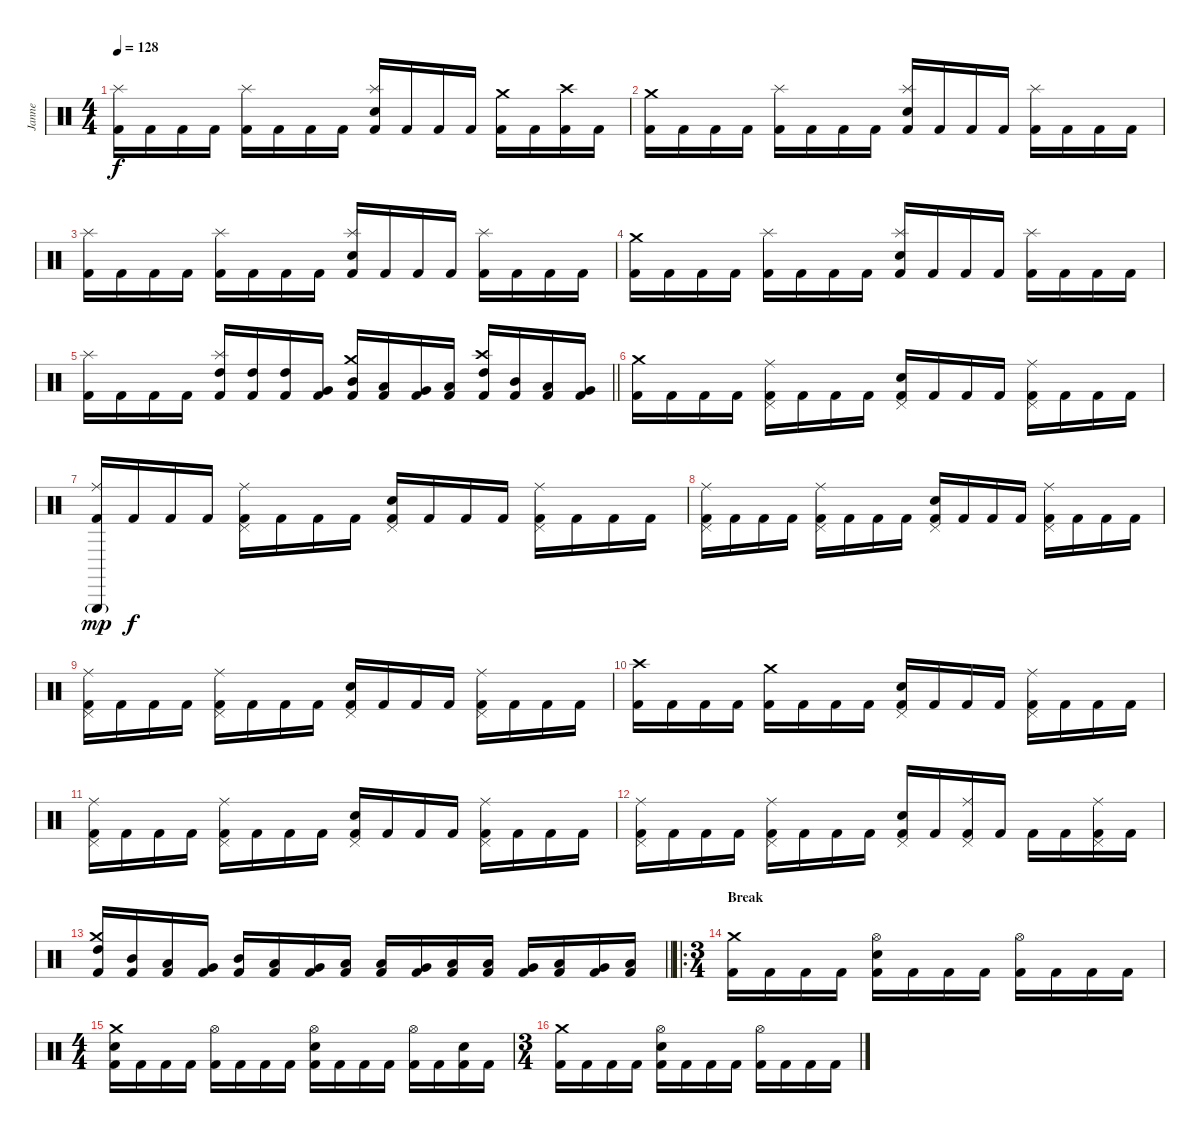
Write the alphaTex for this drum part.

\track ("Janne" "Janne") {instrument percussion}
\staff {score}
\articulation defaults
\ts (4 4)
\tempo 128
\clef neutral
\ks c
("Kick (hit) 2" "Splash (hit)").16{dy f} "Kick (hit) 2".16 "Kick (hit) 2".16 "Kick (hit) 2".16 ("Kick (hit) 2" "Splash (hit)").16 "Kick (hit) 2".16 "Kick (hit) 2".16 "Kick (hit) 2".16 ("Kick (hit) 2" "Snare (hit) 2" "Splash (hit)").16 "Kick (hit) 2".16 "Kick (hit) 2".16 "Kick (hit) 2".16 ("Kick (hit) 2" "Crash medium (hit)").16 "Kick (hit) 2".16 ("Kick (hit) 2" "Crash high (hit)").16 "Kick (hit) 2".16 |
("Kick (hit) 2" "Crash medium (hit)").16 "Kick (hit) 2".16 "Kick (hit) 2".16 "Kick (hit) 2".16 ("Kick (hit) 2" "Splash (hit)").16 "Kick (hit) 2".16 "Kick (hit) 2".16 "Kick (hit) 2".16 ("Kick (hit) 2" "Snare (hit) 2" "Splash (hit)").16 "Kick (hit) 2".16 "Kick (hit) 2".16 "Kick (hit) 2".16 ("Kick (hit) 2" "Splash (hit)").16 "Kick (hit) 2".16 "Kick (hit) 2".16 "Kick (hit) 2".16 |
("Kick (hit) 2" "Splash (hit)").16 "Kick (hit) 2".16 "Kick (hit) 2".16 "Kick (hit) 2".16 ("Kick (hit) 2" "Splash (hit)").16 "Kick (hit) 2".16 "Kick (hit) 2".16 "Kick (hit) 2".16 ("Kick (hit) 2" "Snare (hit) 2" "Splash (hit)").16 "Kick (hit) 2".16 "Kick (hit) 2".16 "Kick (hit) 2".16 ("Kick (hit) 2" "Splash (hit)").16 "Kick (hit) 2".16 "Kick (hit) 2".16 "Kick (hit) 2".16 |
("Kick (hit) 2" "Crash medium (hit)").16 "Kick (hit) 2".16 "Kick (hit) 2".16 "Kick (hit) 2".16 ("Kick (hit) 2" "Splash (hit)").16 "Kick (hit) 2".16 "Kick (hit) 2".16 "Kick (hit) 2".16 ("Kick (hit) 2" "Snare (hit) 2" "Splash (hit)").16 "Kick (hit) 2".16 "Kick (hit) 2".16 "Kick (hit) 2".16 ("Kick (hit) 2" "Splash (hit)").16 "Kick (hit) 2".16 "Kick (hit) 2".16 "Kick (hit) 2".16 |
\barLineRight lightlight
("Kick (hit) 2" "Splash (hit)").16 "Kick (hit) 2".16 "Kick (hit) 2".16 "Kick (hit) 2".16 ("Kick (hit) 2" "High Tom (hit)" "Splash (hit)").16 ("Kick (hit) 2" "High Tom (hit)").16 ("Kick (hit) 2" "High Tom (hit)").16 ("Kick (hit) 2" "Very Low Tom (hit)").16 ("Kick (hit) 2" "Mid Tom (hit)" "Crash medium (hit)").16 ("Kick (hit) 2" "Low Tom (hit)").16 ("Kick (hit) 2" "Very Low Tom (hit)").16 ("Kick (hit) 2" "Low Tom (hit)").16 ("Kick (hit) 2" "High Tom (hit)" "Crash high (hit)").16 ("Kick (hit) 2" "Mid Tom (hit)").16 ("Kick (hit) 2" "Low Tom (hit)").16 ("Kick (hit) 2" "Very Low Tom (hit)").16 |
\section ("" "")
("Kick (hit) 2" "Crash medium (hit)").16 "Kick (hit) 2".16 "Kick (hit) 2".16 "Kick (hit) 2".16 ("Kick (hit) 2" "Pedal Hi-Hat (hit)" "Ride (middle)").16 "Kick (hit) 2".16 "Kick (hit) 2".16 "Kick (hit) 2".16 ("Kick (hit) 2" "Snare (hit) 2" "Pedal Hi-Hat (hit)").16 "Kick (hit) 2".16 "Kick (hit) 2".16 "Kick (hit) 2".16 ("Kick (hit) 2" "Pedal Hi-Hat (hit)" "Ride (middle)").16 "Kick (hit) 2".16 "Kick (hit) 2".16 "Kick (hit) 2".16 |
("Kick (hit) 2" "Ride (middle)" "Triangle (hit)"{g}).16{dy mp} "Kick (hit) 2".16{dy f} "Kick (hit) 2".16 "Kick (hit) 2".16 ("Kick (hit) 2" "Pedal Hi-Hat (hit)" "Ride (middle)").16 "Kick (hit) 2".16 "Kick (hit) 2".16 "Kick (hit) 2".16 ("Kick (hit) 2" "Snare (hit) 2" "Pedal Hi-Hat (hit)").16 "Kick (hit) 2".16 "Kick (hit) 2".16 "Kick (hit) 2".16 ("Kick (hit) 2" "Pedal Hi-Hat (hit)" "Ride (middle)").16 "Kick (hit) 2".16 "Kick (hit) 2".16 "Kick (hit) 2".16 |
("Kick (hit) 2" "Pedal Hi-Hat (hit)" "Ride (middle)").16 "Kick (hit) 2".16 "Kick (hit) 2".16 "Kick (hit) 2".16 ("Kick (hit) 2" "Pedal Hi-Hat (hit)" "Ride (middle)").16 "Kick (hit) 2".16 "Kick (hit) 2".16 "Kick (hit) 2".16 ("Kick (hit) 2" "Snare (hit) 2" "Pedal Hi-Hat (hit)").16 "Kick (hit) 2".16 "Kick (hit) 2".16 "Kick (hit) 2".16 ("Kick (hit) 2" "Pedal Hi-Hat (hit)" "Ride (middle)").16 "Kick (hit) 2".16 "Kick (hit) 2".16 "Kick (hit) 2".16 |
("Kick (hit) 2" "Pedal Hi-Hat (hit)" "Ride (middle)").16 "Kick (hit) 2".16 "Kick (hit) 2".16 "Kick (hit) 2".16 ("Kick (hit) 2" "Pedal Hi-Hat (hit)" "Ride (middle)").16 "Kick (hit) 2".16 "Kick (hit) 2".16 "Kick (hit) 2".16 ("Kick (hit) 2" "Snare (hit) 2" "Pedal Hi-Hat (hit)").16 "Kick (hit) 2".16 "Kick (hit) 2".16 "Kick (hit) 2".16 ("Kick (hit) 2" "Pedal Hi-Hat (hit)" "Ride (middle)").16 "Kick (hit) 2".16 "Kick (hit) 2".16 "Kick (hit) 2".16 |
("Kick (hit) 2" "Crash high (hit)").16 "Kick (hit) 2".16 "Kick (hit) 2".16 "Kick (hit) 2".16 ("Kick (hit) 2" "Crash medium (hit)").16 "Kick (hit) 2".16 "Kick (hit) 2".16 "Kick (hit) 2".16 ("Kick (hit) 2" "Snare (hit) 2" "Pedal Hi-Hat (hit)").16 "Kick (hit) 2".16 "Kick (hit) 2".16 "Kick (hit) 2".16 ("Kick (hit) 2" "Pedal Hi-Hat (hit)" "Ride (middle)").16 "Kick (hit) 2".16 "Kick (hit) 2".16 "Kick (hit) 2".16 |
("Kick (hit) 2" "Pedal Hi-Hat (hit)" "Ride (middle)").16 "Kick (hit) 2".16 "Kick (hit) 2".16 "Kick (hit) 2".16 ("Kick (hit) 2" "Pedal Hi-Hat (hit)" "Ride (middle)").16 "Kick (hit) 2".16 "Kick (hit) 2".16 "Kick (hit) 2".16 ("Kick (hit) 2" "Snare (hit) 2" "Pedal Hi-Hat (hit)").16 "Kick (hit) 2".16 "Kick (hit) 2".16 "Kick (hit) 2".16 ("Kick (hit) 2" "Pedal Hi-Hat (hit)" "Ride (middle)").16 "Kick (hit) 2".16 "Kick (hit) 2".16 "Kick (hit) 2".16 |
("Kick (hit) 2" "Pedal Hi-Hat (hit)" "Ride (middle)").16 "Kick (hit) 2".16 "Kick (hit) 2".16 "Kick (hit) 2".16 ("Kick (hit) 2" "Pedal Hi-Hat (hit)" "Ride (middle)").16 "Kick (hit) 2".16 "Kick (hit) 2".16 "Kick (hit) 2".16 ("Kick (hit) 2" "Snare (hit) 2" "Pedal Hi-Hat (hit)").16 "Kick (hit) 2".16 ("Kick (hit) 2" "Pedal Hi-Hat (hit)" "Ride (middle)").16 "Kick (hit) 2".16 "Kick (hit) 2".16 "Kick (hit) 2".16 ("Kick (hit) 2" "Pedal Hi-Hat (hit)" "Ride (middle)").16 "Kick (hit) 2".16 |
\barLineRight lightlight
("Kick (hit) 2" "High Tom (hit)" "Crash medium (hit)").16 ("Kick (hit) 2" "Mid Tom (hit)").16 ("Kick (hit) 2" "Low Tom (hit)").16 ("Kick (hit) 2" "Very Low Tom (hit)").16 ("Kick (hit) 2" "Mid Tom (hit)").16 ("Kick (hit) 2" "Low Tom (hit)").16 ("Kick (hit) 2" "Very Low Tom (hit)").16 ("Kick (hit) 2" "Low Floor Tom (hit)").16 ("Kick (hit) 2" "Low Tom (hit)").16 ("Kick (hit) 2" "Very Low Tom (hit)").16 ("Kick (hit) 2" "Low Floor Tom (hit)").16 ("Kick (hit) 2" "Low Floor Tom (hit)").16 ("Kick (hit) 2" "Very Low Tom (hit)").16 ("Kick (hit) 2" "Low Floor Tom (hit)").16 ("Kick (hit) 2" "Very Low Tom (hit)").16 ("Kick (hit) 2" "Low Floor Tom (hit)").16 |
\ro
\ts (3 4)
\section ("" "Break")
("Kick (hit) 2" "Crash medium (hit)").16 "Kick (hit) 2".16 "Kick (hit) 2".16 "Kick (hit) 2".16 ("Kick (hit) 2" "Snare (hit) 2" "Hi-Hat (open)").16 "Kick (hit) 2".16 "Kick (hit) 2".16 "Kick (hit) 2".16 ("Kick (hit) 2" "Hi-Hat (open)").16 "Kick (hit) 2".16 "Kick (hit) 2".16 "Kick (hit) 2".16 |
\ts (4 4)
("Kick (hit) 2" "Snare (hit) 2" "Crash medium (hit)").16 "Kick (hit) 2".16 "Kick (hit) 2".16 "Kick (hit) 2".16 ("Kick (hit) 2" "Hi-Hat (open)").16 "Kick (hit) 2".16 "Kick (hit) 2".16 "Kick (hit) 2".16 ("Kick (hit) 2" "Snare (hit) 2" "Hi-Hat (open)").16 "Kick (hit) 2".16 "Kick (hit) 2".16 "Kick (hit) 2".16 ("Kick (hit) 2" "Hi-Hat (open)").16 "Kick (hit) 2".16 ("Kick (hit) 2" "Snare (hit) 2").16 "Kick (hit) 2".16 |
\ts (3 4)
("Kick (hit) 2" "Crash medium (hit)").16 "Kick (hit) 2".16 "Kick (hit) 2".16 "Kick (hit) 2".16 ("Kick (hit) 2" "Snare (hit) 2" "Hi-Hat (open)").16 "Kick (hit) 2".16 "Kick (hit) 2".16 "Kick (hit) 2".16 ("Kick (hit) 2" "Hi-Hat (open)").16 "Kick (hit) 2".16 "Kick (hit) 2".16 "Kick (hit) 2".16
